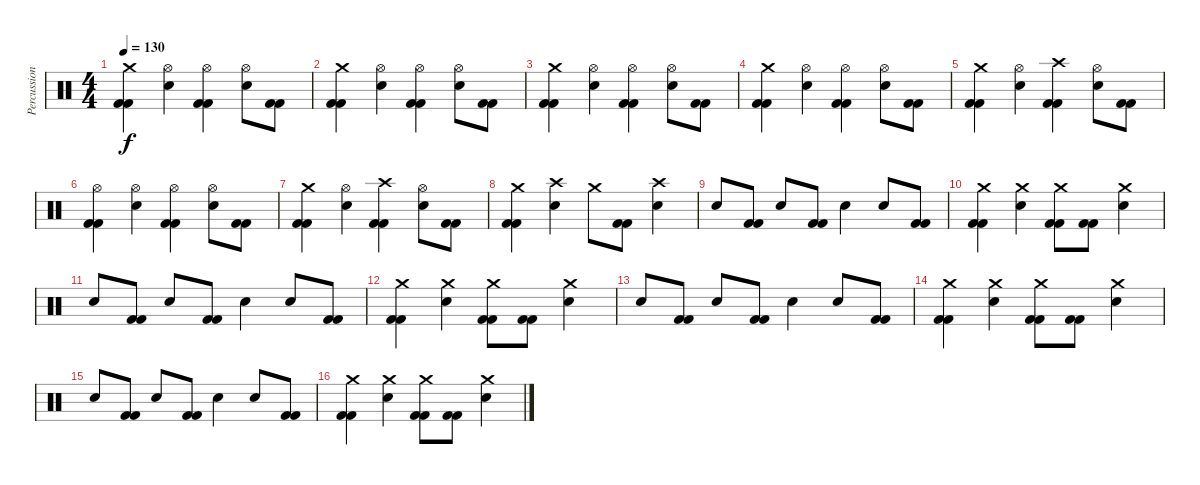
\track ("Percussion" "Percussion") {instrument percussion}
\staff {score}
\articulation defaults
\ts (4 4)
\tempo 130
\clef neutral
\ks c
("Crash medium (hit)" "Kick (hit) 2" "Kick (hit) 2").4{dy f} ("Hi-Hat (open)" "Snare (hit) 2").4 ("Hi-Hat (open)" "Kick (hit) 2" "Kick (hit) 2").4 ("Hi-Hat (open)" "Snare (hit) 2").8 ("Kick (hit) 2" "Kick (hit) 2").8 |
("Crash medium (hit)" "Kick (hit) 2" "Kick (hit) 2").4 ("Hi-Hat (open)" "Snare (hit) 2").4 ("Hi-Hat (open)" "Kick (hit) 2" "Kick (hit) 2").4 ("Hi-Hat (open)" "Snare (hit) 2").8 ("Kick (hit) 2" "Kick (hit) 2").8 |
("Crash medium (hit)" "Kick (hit) 2" "Kick (hit) 2").4 ("Hi-Hat (open)" "Snare (hit) 2").4 ("Hi-Hat (open)" "Kick (hit) 2" "Kick (hit) 2").4 ("Hi-Hat (open)" "Snare (hit) 2").8 ("Kick (hit) 2" "Kick (hit) 2").8 |
("Crash medium (hit)" "Kick (hit) 2" "Kick (hit) 2").4 ("Hi-Hat (open)" "Snare (hit) 2").4 ("Hi-Hat (open)" "Kick (hit) 2" "Kick (hit) 2").4 ("Hi-Hat (open)" "Snare (hit) 2").8 ("Kick (hit) 2" "Kick (hit) 2").8 |
("Crash medium (hit)" "Kick (hit) 2" "Kick (hit) 2").4 ("Hi-Hat (open)" "Snare (hit) 2").4 ("Crash high (hit)" "Kick (hit) 2" "Kick (hit) 2").4 ("Hi-Hat (open)" "Snare (hit) 2").8 ("Kick (hit) 2" "Kick (hit) 2").8 |
("Hi-Hat (open)" "Kick (hit) 2" "Kick (hit) 2").4 ("Hi-Hat (open)" "Snare (hit) 2").4 ("Hi-Hat (open)" "Kick (hit) 2" "Kick (hit) 2").4 ("Hi-Hat (open)" "Snare (hit) 2").8 ("Kick (hit) 2" "Kick (hit) 2").8 |
("Crash medium (hit)" "Kick (hit) 2" "Kick (hit) 2").4 ("Hi-Hat (open)" "Snare (hit) 2").4 ("Crash high (hit)" "Kick (hit) 2" "Kick (hit) 2").4 ("Hi-Hat (open)" "Snare (hit) 2").8 ("Kick (hit) 2" "Kick (hit) 2").8 |
("Crash medium (hit)" "Kick (hit) 2" "Kick (hit) 2").4 ("Crash high (hit)" "Snare (hit) 2").4 "Crash medium (hit)".8 ("Kick (hit) 2" "Kick (hit) 2").8 ("Snare (hit) 2" "Crash high (hit)").4 |
"Snare (hit) 2".8 ("Kick (hit) 2" "Kick (hit) 2").8 "Snare (hit) 2".8 ("Kick (hit) 2" "Kick (hit) 2").8 "Snare (hit) 2".4 "Snare (hit) 2".8 ("Kick (hit) 2" "Kick (hit) 2").8 |
("Crash medium (hit)" "Kick (hit) 2" "Kick (hit) 2").4 ("Crash medium (hit)" "Snare (hit) 2").4 ("Crash medium (hit)" "Kick (hit) 2" "Kick (hit) 2").8 ("Kick (hit) 2" "Kick (hit) 2").8 ("Crash medium (hit)" "Snare (hit) 2").4 |
"Snare (hit) 2".8 ("Kick (hit) 2" "Kick (hit) 2").8 "Snare (hit) 2".8 ("Kick (hit) 2" "Kick (hit) 2").8 "Snare (hit) 2".4 "Snare (hit) 2".8 ("Kick (hit) 2" "Kick (hit) 2").8 |
("Crash medium (hit)" "Kick (hit) 2" "Kick (hit) 2").4 ("Crash medium (hit)" "Snare (hit) 2").4 ("Crash medium (hit)" "Kick (hit) 2" "Kick (hit) 2").8 ("Kick (hit) 2" "Kick (hit) 2").8 ("Crash medium (hit)" "Snare (hit) 2").4 |
"Snare (hit) 2".8 ("Kick (hit) 2" "Kick (hit) 2").8 "Snare (hit) 2".8 ("Kick (hit) 2" "Kick (hit) 2").8 "Snare (hit) 2".4 "Snare (hit) 2".8 ("Kick (hit) 2" "Kick (hit) 2").8 |
("Crash medium (hit)" "Kick (hit) 2" "Kick (hit) 2").4 ("Crash medium (hit)" "Snare (hit) 2").4 ("Crash medium (hit)" "Kick (hit) 2" "Kick (hit) 2").8 ("Kick (hit) 2" "Kick (hit) 2").8 ("Crash medium (hit)" "Snare (hit) 2").4 |
"Snare (hit) 2".8 ("Kick (hit) 2" "Kick (hit) 2").8 "Snare (hit) 2".8 ("Kick (hit) 2" "Kick (hit) 2").8 "Snare (hit) 2".4 "Snare (hit) 2".8 ("Kick (hit) 2" "Kick (hit) 2").8 |
("Crash medium (hit)" "Kick (hit) 2" "Kick (hit) 2").4 ("Crash medium (hit)" "Snare (hit) 2").4 ("Crash medium (hit)" "Kick (hit) 2" "Kick (hit) 2").8 ("Kick (hit) 2" "Kick (hit) 2").8 ("Crash medium (hit)" "Snare (hit) 2").4
